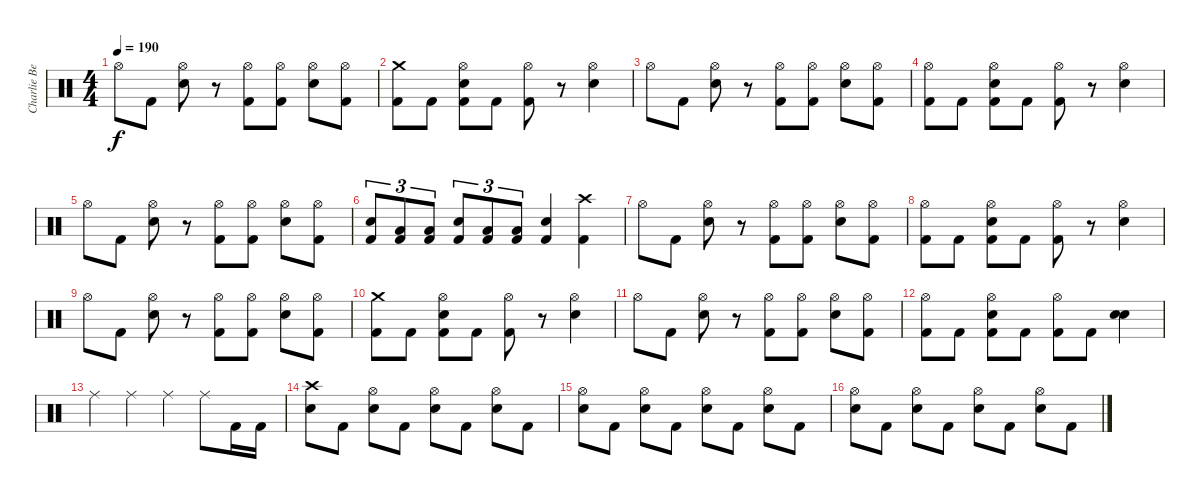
\track ("Charlie Benante" "Charlie Be") {instrument percussion}
\staff {score}
\articulation defaults
\ts (4 4)
\tempo 190
\clef neutral
\ks c "Hi-Hat (open)".8{dy f} "Kick (hit) 2".8
("Snare (hit) 2" "Hi-Hat (open)").8 r.8 ("Hi-Hat (open)" "Kick (hit) 2").8 ("Hi-Hat (open)" "Kick (hit) 2").8 ("Snare (hit) 2" "Hi-Hat (open)").8 ("Hi-Hat (open)" "Kick (hit) 2").8 |
("Crash medium (hit)" "Kick (hit) 2").8 "Kick (hit) 2".8 ("Snare (hit) 2" "Hi-Hat (open)" "Kick (hit) 2").8 "Kick (hit) 2".8 ("Hi-Hat (open)" "Kick (hit) 2").8 r.8 ("Snare (hit) 2" "Hi-Hat (open)").4 |
"Hi-Hat (open)".8 "Kick (hit) 2".8 ("Snare (hit) 2" "Hi-Hat (open)").8 r.8 ("Hi-Hat (open)" "Kick (hit) 2").8 ("Hi-Hat (open)" "Kick (hit) 2").8 ("Snare (hit) 2" "Hi-Hat (open)").8 ("Hi-Hat (open)" "Kick (hit) 2").8 |
("Hi-Hat (open)" "Kick (hit) 2").8 "Kick (hit) 2".8 ("Snare (hit) 2" "Hi-Hat (open)" "Kick (hit) 2").8 "Kick (hit) 2".8 ("Hi-Hat (open)" "Kick (hit) 2").8 r.8 ("Snare (hit) 2" "Hi-Hat (open)").4 |
"Hi-Hat (open)".8 "Kick (hit) 2".8 ("Snare (hit) 2" "Hi-Hat (open)").8 r.8 ("Hi-Hat (open)" "Kick (hit) 2").8 ("Hi-Hat (open)" "Kick (hit) 2").8 ("Snare (hit) 2" "Hi-Hat (open)").8 ("Hi-Hat (open)" "Kick (hit) 2").8 |
("Snare (hit) 2" "Kick (hit) 2").8{tu (3 2)} ("Low Tom (hit)" "Kick (hit) 2").8{tu (3 2)} ("Low Tom (hit)" "Kick (hit) 2").8{tu (3 2)} ("Snare (hit) 2" "Kick (hit) 2").8{tu (3 2)} ("Low Tom (hit)" "Kick (hit) 2").8{tu (3 2)} ("Low Tom (hit)" "Kick (hit) 2").8{tu (3 2)} ("Snare (hit) 2" "Kick (hit) 2").4 ("Crash high (hit)" "Kick (hit) 2").4 |
"Hi-Hat (open)".8 "Kick (hit) 2".8 ("Snare (hit) 2" "Hi-Hat (open)").8 r.8 ("Hi-Hat (open)" "Kick (hit) 2").8 ("Hi-Hat (open)" "Kick (hit) 2").8 ("Snare (hit) 2" "Hi-Hat (open)").8 ("Hi-Hat (open)" "Kick (hit) 2").8 |
("Hi-Hat (open)" "Kick (hit) 2").8 "Kick (hit) 2".8 ("Snare (hit) 2" "Hi-Hat (open)" "Kick (hit) 2").8 "Kick (hit) 2".8 ("Hi-Hat (open)" "Kick (hit) 2").8 r.8 ("Snare (hit) 2" "Hi-Hat (open)").4 |
"Hi-Hat (open)".8 "Kick (hit) 2".8 ("Snare (hit) 2" "Hi-Hat (open)").8 r.8 ("Hi-Hat (open)" "Kick (hit) 2").8 ("Hi-Hat (open)" "Kick (hit) 2").8 ("Snare (hit) 2" "Hi-Hat (open)").8 ("Hi-Hat (open)" "Kick (hit) 2").8 |
("Crash medium (hit)" "Kick (hit) 2").8 "Kick (hit) 2".8 ("Snare (hit) 2" "Hi-Hat (open)" "Kick (hit) 2").8 "Kick (hit) 2".8 ("Hi-Hat (open)" "Kick (hit) 2").8 r.8 ("Snare (hit) 2" "Hi-Hat (open)").4 |
"Hi-Hat (open)".8 "Kick (hit) 2".8 ("Snare (hit) 2" "Hi-Hat (open)").8 r.8 ("Hi-Hat (open)" "Kick (hit) 2").8 ("Hi-Hat (open)" "Kick (hit) 2").8 ("Snare (hit) 2" "Hi-Hat (open)").8 ("Hi-Hat (open)" "Kick (hit) 2").8 |
("Hi-Hat (open)" "Kick (hit) 2").8 "Kick (hit) 2".8 ("Snare (hit) 2" "Hi-Hat (open)" "Kick (hit) 2").8 "Kick (hit) 2".8 ("Hi-Hat (open)" "Kick (hit) 2").8 "Kick (hit) 2".8 ("Electric Snare (hit)" "Snare (hit) 2").4 |
"Ride (middle)".4 "Ride (middle)".4 "Ride (middle)".4 "Ride (middle)".8 "Kick (hit) 2".16 "Kick (hit) 2".16 |
("Snare (hit) 2" "Crash high (hit)").8 "Kick (hit) 2".8 ("Snare (hit) 2" "Hi-Hat (open)").8 "Kick (hit) 2".8 ("Snare (hit) 2" "Hi-Hat (open)").8 "Kick (hit) 2".8 ("Snare (hit) 2" "Hi-Hat (open)").8 "Kick (hit) 2".8 |
("Snare (hit) 2" "Hi-Hat (open)").8 "Kick (hit) 2".8 ("Snare (hit) 2" "Hi-Hat (open)").8 "Kick (hit) 2".8 ("Snare (hit) 2" "Hi-Hat (open)").8 "Kick (hit) 2".8 ("Snare (hit) 2" "Hi-Hat (open)").8 "Kick (hit) 2".8 |
("Snare (hit) 2" "Hi-Hat (open)").8 "Kick (hit) 2".8 ("Snare (hit) 2" "Hi-Hat (open)").8 "Kick (hit) 2".8 ("Snare (hit) 2" "Hi-Hat (open)").8 "Kick (hit) 2".8 ("Snare (hit) 2" "Hi-Hat (open)").8 "Kick (hit) 2".8
